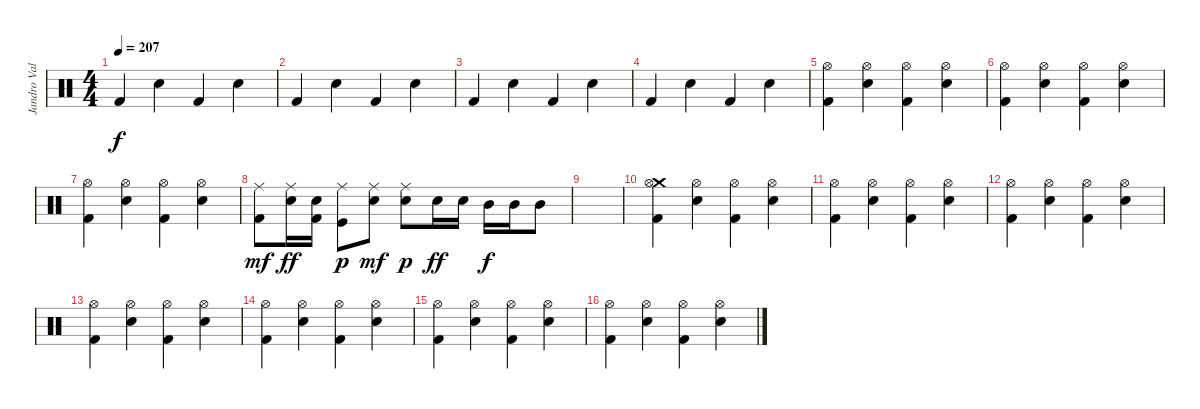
\track ("Jandro Valázquez" "Jandro Val") {instrument percussion}
\staff {score}
\articulation defaults
\ts (4 4)
\tempo 207
\clef neutral
\ks c "Kick (hit) 2".4{dy f} "Snare (hit) 2".4 "Kick (hit) 2".4 "Snare (hit) 2".4
|
"Kick (hit) 2".4 "Snare (hit) 2".4 "Kick (hit) 2".4 "Snare (hit) 2".4 |
"Kick (hit) 2".4 "Snare (hit) 2".4 "Kick (hit) 2".4 "Snare (hit) 2".4 |
"Kick (hit) 2".4 "Snare (hit) 2".4 "Kick (hit) 2".4 "Snare (hit) 2".4 |
("Hi-Hat (open)" "Kick (hit) 2").4{volume 13} ("Hi-Hat (open)" "Snare (hit) 2").4 ("Hi-Hat (open)" "Kick (hit) 2").4 ("Hi-Hat (open)" "Snare (hit) 2").4 |
("Hi-Hat (open)" "Kick (hit) 2").4 ("Hi-Hat (open)" "Snare (hit) 2").4 ("Hi-Hat (open)" "Kick (hit) 2").4 ("Hi-Hat (open)" "Snare (hit) 2").4 |
("Hi-Hat (open)" "Kick (hit) 2").4 ("Hi-Hat (open)" "Snare (hit) 2").4 ("Hi-Hat (open)" "Kick (hit) 2").4 ("Hi-Hat (open)" "Snare (hit) 2").4 |
("Kick (hit) 2" "Ride (middle)").8{dy mf} ("Electric Snare (hit)" "Ride (middle)").16{dy ff} ("Electric Snare (hit)" "Kick (hit) 2").16 ("Kick (hit)" "Ride (middle)").8{dy p} ("Electric Snare (hit)" "Ride (middle)").8{dy mf} ("Electric Snare (hit)" "Ride (middle)").8{dy p} "Electric Snare (hit)".16{dy ff} "Electric Snare (hit)".16 "Mid Tom (hit)".16{dy f} "Mid Tom (hit)".16 "Mid Tom (hit)".8 |
|
("Crash medium (hit)" "Hi-Hat (open)" "Kick (hit) 2").4 ("Hi-Hat (open)" "Snare (hit) 2").4 ("Hi-Hat (open)" "Kick (hit) 2").4 ("Hi-Hat (open)" "Snare (hit) 2").4 |
("Hi-Hat (open)" "Kick (hit) 2").4 ("Hi-Hat (open)" "Snare (hit) 2").4 ("Hi-Hat (open)" "Kick (hit) 2").4 ("Hi-Hat (open)" "Snare (hit) 2").4 |
("Hi-Hat (open)" "Kick (hit) 2").4 ("Hi-Hat (open)" "Snare (hit) 2").4 ("Hi-Hat (open)" "Kick (hit) 2").4 ("Hi-Hat (open)" "Snare (hit) 2").4 |
("Hi-Hat (open)" "Kick (hit) 2").4 ("Hi-Hat (open)" "Snare (hit) 2").4 ("Hi-Hat (open)" "Kick (hit) 2").4 ("Hi-Hat (open)" "Snare (hit) 2").4 |
("Hi-Hat (open)" "Kick (hit) 2").4 ("Hi-Hat (open)" "Snare (hit) 2").4 ("Hi-Hat (open)" "Kick (hit) 2").4 ("Hi-Hat (open)" "Snare (hit) 2").4 |
("Hi-Hat (open)" "Kick (hit) 2").4 ("Hi-Hat (open)" "Snare (hit) 2").4 ("Hi-Hat (open)" "Kick (hit) 2").4 ("Hi-Hat (open)" "Snare (hit) 2").4 |
("Hi-Hat (open)" "Kick (hit) 2").4 ("Hi-Hat (open)" "Snare (hit) 2").4 ("Hi-Hat (open)" "Kick (hit) 2").4 ("Hi-Hat (open)" "Snare (hit) 2").4
